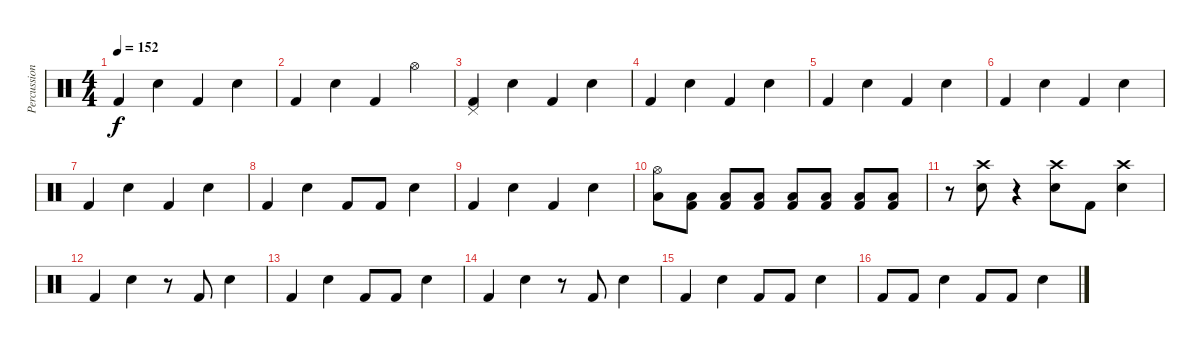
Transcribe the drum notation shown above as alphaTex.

\track ("Percussion" "Percussion") {instrument percussion}
\staff {score}
\articulation defaults
\ts (4 4)
\tempo 152
\clef neutral
\ks c "Kick (hit) 2".4{dy f} "Snare (hit) 2".4 "Kick (hit) 2".4 "Snare (hit) 2".4
|
"Kick (hit) 2".4 "Snare (hit) 2".4 "Kick (hit) 2".4 "Hi-Hat (open)".4 |
("Kick (hit) 2" "Pedal Hi-Hat (hit)").4 "Snare (hit) 2".4 "Kick (hit) 2".4 "Snare (hit) 2".4 |
"Kick (hit) 2".4 "Snare (hit) 2".4 "Kick (hit) 2".4 "Snare (hit) 2".4 |
"Kick (hit) 2".4 "Snare (hit) 2".4 "Kick (hit) 2".4 "Snare (hit) 2".4 |
"Kick (hit) 2".4 "Snare (hit) 2".4 "Kick (hit) 2".4 "Snare (hit) 2".4 |
"Kick (hit) 2".4 "Snare (hit) 2".4 "Kick (hit) 2".4 "Snare (hit) 2".4 |
"Kick (hit) 2".4 "Snare (hit) 2".4 "Kick (hit) 2".8 "Kick (hit) 2".8 "Snare (hit) 2".4 |
"Kick (hit) 2".4 "Snare (hit) 2".4 "Kick (hit) 2".4 "Snare (hit) 2".4 |
("Hi-Hat (open)" "Low Floor Tom (hit)").8 ("Kick (hit) 2" "Low Floor Tom (hit)").8{volume 7} ("Kick (hit) 2" "Low Floor Tom (hit)").8{volume 8} ("Kick (hit) 2" "Low Floor Tom (hit)").8{volume 9} ("Kick (hit) 2" "Low Floor Tom (hit)").8{volume 10} ("Kick (hit) 2" "Low Floor Tom (hit)").8{volume 11} ("Kick (hit) 2" "Low Floor Tom (hit)").8{volume 12} ("Kick (hit) 2" "Low Floor Tom (hit)").8{volume 13} |
r.8 ("Crash high (hit)" "Electric Snare (hit)").8 r.4 ("Crash high (hit)" "Electric Snare (hit)").8 "Kick (hit) 2".8 ("Crash high (hit)" "Electric Snare (hit)").4 |
"Kick (hit) 2".4 "Electric Snare (hit)".4 r.8 "Kick (hit) 2".8 "Electric Snare (hit)".4 |
"Kick (hit) 2".4 "Electric Snare (hit)".4 "Kick (hit) 2".8 "Kick (hit) 2".8 "Electric Snare (hit)".4 |
"Kick (hit) 2".4 "Electric Snare (hit)".4 r.8 "Kick (hit) 2".8 "Electric Snare (hit)".4 |
"Kick (hit) 2".4 "Electric Snare (hit)".4 "Kick (hit) 2".8 "Kick (hit) 2".8 "Electric Snare (hit)".4 |
"Kick (hit) 2".8 "Kick (hit) 2".8 "Electric Snare (hit)".4 "Kick (hit) 2".8 "Kick (hit) 2".8 "Electric Snare (hit)".4
